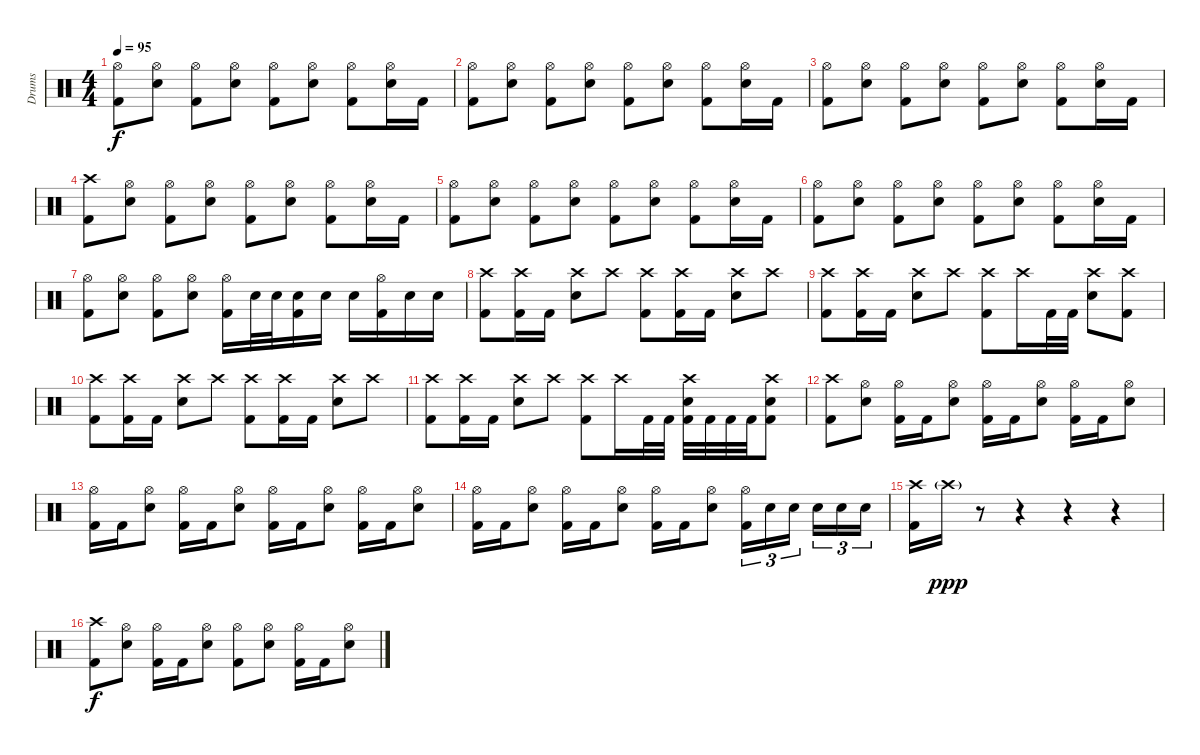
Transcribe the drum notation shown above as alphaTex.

\track ("Drums" "Drums") {instrument percussion}
\staff {score}
\articulation defaults
\ts (4 4)
\tempo 95
\clef neutral
\ks c
("Hi-Hat (open)" "Kick (hit) 2").8{dy f} ("Hi-Hat (open)" "Snare (hit) 2").8 ("Hi-Hat (open)" "Kick (hit) 2").8 ("Hi-Hat (open)" "Snare (hit) 2").8 ("Hi-Hat (open)" "Kick (hit) 2").8 ("Hi-Hat (open)" "Snare (hit) 2").8 ("Hi-Hat (open)" "Kick (hit) 2").8 ("Hi-Hat (open)" "Snare (hit) 2").16 "Kick (hit) 2".16 |
("Hi-Hat (open)" "Kick (hit) 2").8 ("Hi-Hat (open)" "Snare (hit) 2").8 ("Hi-Hat (open)" "Kick (hit) 2").8 ("Hi-Hat (open)" "Snare (hit) 2").8 ("Hi-Hat (open)" "Kick (hit) 2").8 ("Hi-Hat (open)" "Snare (hit) 2").8 ("Hi-Hat (open)" "Kick (hit) 2").8 ("Hi-Hat (open)" "Snare (hit) 2").16 "Kick (hit) 2".16 |
("Hi-Hat (open)" "Kick (hit) 2").8 ("Hi-Hat (open)" "Snare (hit) 2").8 ("Hi-Hat (open)" "Kick (hit) 2").8 ("Hi-Hat (open)" "Snare (hit) 2").8 ("Hi-Hat (open)" "Kick (hit) 2").8 ("Hi-Hat (open)" "Snare (hit) 2").8 ("Hi-Hat (open)" "Kick (hit) 2").8 ("Hi-Hat (open)" "Snare (hit) 2").16 "Kick (hit) 2".16 |
("Crash high (hit)" "Kick (hit) 2").8 ("Hi-Hat (open)" "Snare (hit) 2").8 ("Hi-Hat (open)" "Kick (hit) 2").8 ("Hi-Hat (open)" "Snare (hit) 2").8 ("Hi-Hat (open)" "Kick (hit) 2").8 ("Hi-Hat (open)" "Snare (hit) 2").8 ("Hi-Hat (open)" "Kick (hit) 2").8 ("Hi-Hat (open)" "Snare (hit) 2").16 "Kick (hit) 2".16 |
("Hi-Hat (open)" "Kick (hit) 2").8 ("Hi-Hat (open)" "Snare (hit) 2").8 ("Hi-Hat (open)" "Kick (hit) 2").8 ("Hi-Hat (open)" "Snare (hit) 2").8 ("Hi-Hat (open)" "Kick (hit) 2").8 ("Hi-Hat (open)" "Snare (hit) 2").8 ("Hi-Hat (open)" "Kick (hit) 2").8 ("Hi-Hat (open)" "Snare (hit) 2").16 "Kick (hit) 2".16 |
("Hi-Hat (open)" "Kick (hit) 2").8 ("Hi-Hat (open)" "Snare (hit) 2").8 ("Hi-Hat (open)" "Kick (hit) 2").8 ("Hi-Hat (open)" "Snare (hit) 2").8 ("Hi-Hat (open)" "Kick (hit) 2").8 ("Hi-Hat (open)" "Snare (hit) 2").8 ("Hi-Hat (open)" "Kick (hit) 2").8 ("Hi-Hat (open)" "Snare (hit) 2").16 "Kick (hit) 2".16 |
("Hi-Hat (open)" "Kick (hit) 2").8 ("Hi-Hat (open)" "Snare (hit) 2").8 ("Hi-Hat (open)" "Kick (hit) 2").8 ("Hi-Hat (open)" "Snare (hit) 2").8 ("Hi-Hat (open)" "Kick (hit) 2").16 "Snare (hit) 2".32 "Snare (hit) 2".32 ("Snare (hit) 2" "Kick (hit) 2").16 "Snare (hit) 2".16 "Snare (hit) 2".16 ("Hi-Hat (open)" "Kick (hit) 2").16 "Snare (hit) 2".16 "Snare (hit) 2".16 |
("Crash high (hit)" "Kick (hit) 2").8 ("Crash high (hit)" "Kick (hit) 2").16 "Kick (hit) 2".16 ("Crash high (hit)" "Snare (hit) 2").8 "Crash high (hit)".8 ("Crash high (hit)" "Kick (hit) 2").8 ("Crash high (hit)" "Kick (hit) 2").16 "Kick (hit) 2".16 ("Crash high (hit)" "Snare (hit) 2").8 "Crash high (hit)".8 |
("Crash high (hit)" "Kick (hit) 2").8 ("Crash high (hit)" "Kick (hit) 2").16 "Kick (hit) 2".16 ("Crash high (hit)" "Snare (hit) 2").8 "Crash high (hit)".8 ("Crash high (hit)" "Kick (hit) 2").8 "Crash high (hit)".16 "Kick (hit) 2".32 "Kick (hit) 2".32 ("Crash high (hit)" "Snare (hit) 2").8 ("Crash high (hit)" "Kick (hit) 2").8 |
("Crash high (hit)" "Kick (hit) 2").8 ("Crash high (hit)" "Kick (hit) 2").16 "Kick (hit) 2".16 ("Crash high (hit)" "Snare (hit) 2").8 "Crash high (hit)".8 ("Crash high (hit)" "Kick (hit) 2").8 ("Crash high (hit)" "Kick (hit) 2").16 "Kick (hit) 2".16 ("Crash high (hit)" "Snare (hit) 2").8 "Crash high (hit)".8 |
("Crash high (hit)" "Kick (hit) 2").8 ("Crash high (hit)" "Kick (hit) 2").16 "Kick (hit) 2".16 ("Crash high (hit)" "Snare (hit) 2").8 "Crash high (hit)".8 ("Crash high (hit)" "Kick (hit) 2").8 "Crash high (hit)".16 "Kick (hit) 2".32 "Kick (hit) 2".32 ("Crash high (hit)" "Snare (hit) 2" "Kick (hit) 2").32 "Kick (hit) 2".32 "Kick (hit) 2".32 "Kick (hit) 2".32 ("Crash high (hit)" "Snare (hit) 2" "Kick (hit) 2").8 |
("Crash high (hit)" "Kick (hit) 2").8 ("Hi-Hat (open)" "Snare (hit) 2").8 ("Hi-Hat (open)" "Kick (hit) 2").16 "Kick (hit) 2".16 ("Hi-Hat (open)" "Snare (hit) 2").8 ("Hi-Hat (open)" "Kick (hit) 2").16 "Kick (hit) 2".16 ("Hi-Hat (open)" "Snare (hit) 2").8 ("Hi-Hat (open)" "Kick (hit) 2").16 "Kick (hit) 2".16 ("Hi-Hat (open)" "Snare (hit) 2").8 |
("Hi-Hat (open)" "Kick (hit) 2").16 "Kick (hit) 2".16 ("Hi-Hat (open)" "Snare (hit) 2").8 ("Hi-Hat (open)" "Kick (hit) 2").16 "Kick (hit) 2".16 ("Hi-Hat (open)" "Snare (hit) 2").8 ("Hi-Hat (open)" "Kick (hit) 2").16 "Kick (hit) 2".16 ("Hi-Hat (open)" "Snare (hit) 2").8 ("Hi-Hat (open)" "Kick (hit) 2").16 "Kick (hit) 2".16 ("Hi-Hat (open)" "Snare (hit) 2").8 |
("Hi-Hat (open)" "Kick (hit) 2").16 "Kick (hit) 2".16 ("Hi-Hat (open)" "Snare (hit) 2").8 ("Hi-Hat (open)" "Kick (hit) 2").16 "Kick (hit) 2".16 ("Hi-Hat (open)" "Snare (hit) 2").8 ("Hi-Hat (open)" "Kick (hit) 2").16 "Kick (hit) 2".16 ("Hi-Hat (open)" "Snare (hit) 2").8 ("Hi-Hat (open)" "Kick (hit) 2").16{tu (3 2)} "Snare (hit) 2".16{tu (3 2)} "Snare (hit) 2".16{tu (3 2) beam splitsecondary} "Snare (hit) 2".16{tu (3 2)} "Snare (hit) 2".16{tu (3 2)} "Snare (hit) 2".16{tu (3 2)} |
("Crash high (hit)" "Kick (hit) 2").16 "Crash high (hit)"{g}.16{dy ppp} r.8 r.4 r.4 r.4 |
("Crash high (hit)" "Kick (hit) 2").8{dy f} ("Hi-Hat (open)" "Snare (hit) 2").8 ("Hi-Hat (open)" "Kick (hit) 2").16 "Kick (hit) 2".16 ("Hi-Hat (open)" "Snare (hit) 2").8 ("Hi-Hat (open)" "Kick (hit) 2").8 ("Hi-Hat (open)" "Snare (hit) 2").8 ("Hi-Hat (open)" "Kick (hit) 2").16 "Kick (hit) 2".16 ("Hi-Hat (open)" "Snare (hit) 2").8
